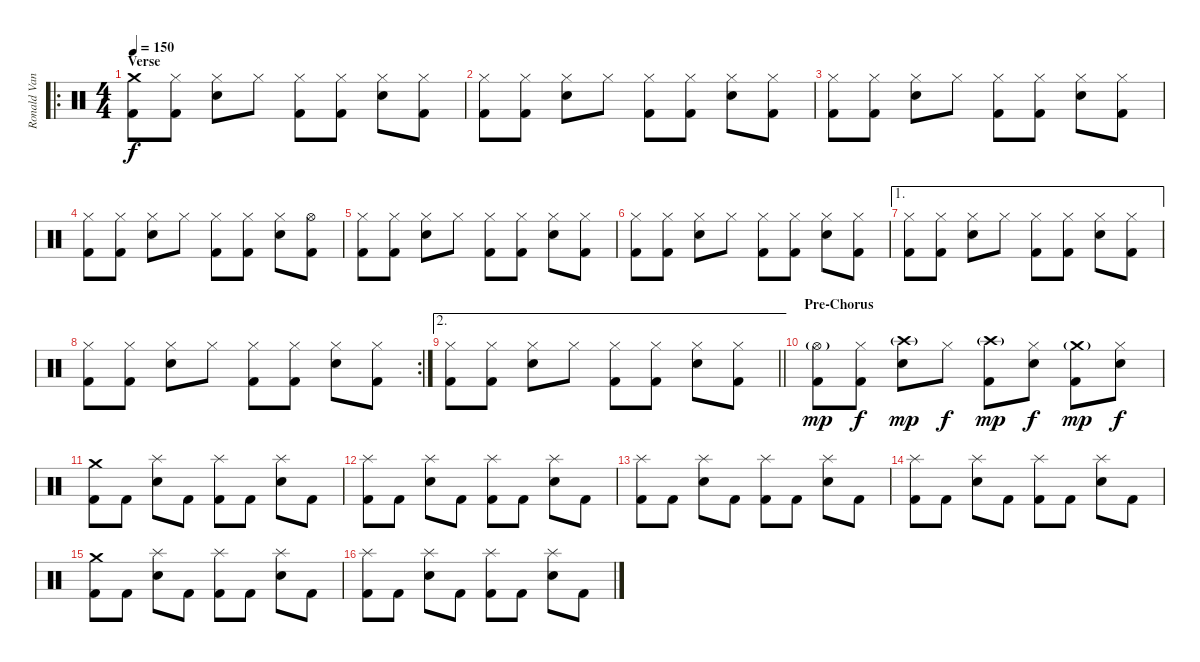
\track ("Ronald Vanucci Jr (Drums)" "Ronald Van") {instrument percussion}
\staff {score}
\articulation defaults
\ro
\ts (4 4)
\section ("" "Verse")
\tempo 150
\clef neutral
\ks c
("Crash medium (hit)" "Kick (hit) 2").8{dy f} ("Hi-Hat (closed)" "Kick (hit) 2").8 ("Hi-Hat (closed)" "Snare (hit) 2").8 "Hi-Hat (closed)".8 ("Hi-Hat (closed)" "Kick (hit) 2").8 ("Hi-Hat (closed)" "Kick (hit) 2").8 ("Hi-Hat (closed)" "Snare (hit) 2").8 ("Hi-Hat (closed)" "Kick (hit) 2").8 |
("Hi-Hat (closed)" "Kick (hit) 2").8 ("Hi-Hat (closed)" "Kick (hit) 2").8 ("Hi-Hat (closed)" "Snare (hit) 2").8 "Hi-Hat (closed)".8 ("Hi-Hat (closed)" "Kick (hit) 2").8 ("Hi-Hat (closed)" "Kick (hit) 2").8 ("Hi-Hat (closed)" "Snare (hit) 2").8 ("Hi-Hat (closed)" "Kick (hit) 2").8 |
("Hi-Hat (closed)" "Kick (hit) 2").8 ("Hi-Hat (closed)" "Kick (hit) 2").8 ("Hi-Hat (closed)" "Snare (hit) 2").8 "Hi-Hat (closed)".8 ("Hi-Hat (closed)" "Kick (hit) 2").8 ("Hi-Hat (closed)" "Kick (hit) 2").8 ("Hi-Hat (closed)" "Snare (hit) 2").8 ("Hi-Hat (closed)" "Kick (hit) 2").8 |
("Hi-Hat (closed)" "Kick (hit) 2").8 ("Hi-Hat (closed)" "Kick (hit) 2").8 ("Hi-Hat (closed)" "Snare (hit) 2").8 "Hi-Hat (closed)".8 ("Hi-Hat (closed)" "Kick (hit) 2").8 ("Hi-Hat (closed)" "Kick (hit) 2").8 ("Hi-Hat (closed)" "Snare (hit) 2").8 ("Hi-Hat (open)" "Kick (hit) 2").8 |
("Hi-Hat (closed)" "Kick (hit) 2").8 ("Hi-Hat (closed)" "Kick (hit) 2").8 ("Hi-Hat (closed)" "Snare (hit) 2").8 "Hi-Hat (closed)".8 ("Hi-Hat (closed)" "Kick (hit) 2").8 ("Hi-Hat (closed)" "Kick (hit) 2").8 ("Hi-Hat (closed)" "Snare (hit) 2").8 ("Hi-Hat (closed)" "Kick (hit) 2").8 |
("Hi-Hat (closed)" "Kick (hit) 2").8 ("Hi-Hat (closed)" "Kick (hit) 2").8 ("Hi-Hat (closed)" "Snare (hit) 2").8 "Hi-Hat (closed)".8 ("Hi-Hat (closed)" "Kick (hit) 2").8 ("Hi-Hat (closed)" "Kick (hit) 2").8 ("Hi-Hat (closed)" "Snare (hit) 2").8 ("Hi-Hat (closed)" "Kick (hit) 2").8 |
\ae 1
("Hi-Hat (closed)" "Kick (hit) 2").8 ("Hi-Hat (closed)" "Kick (hit) 2").8 ("Hi-Hat (closed)" "Snare (hit) 2").8 "Hi-Hat (closed)".8 ("Hi-Hat (closed)" "Kick (hit) 2").8 ("Hi-Hat (closed)" "Kick (hit) 2").8 ("Hi-Hat (closed)" "Snare (hit) 2").8 ("Hi-Hat (closed)" "Kick (hit) 2").8 |
\rc 2
("Hi-Hat (closed)" "Kick (hit) 2").8 ("Hi-Hat (closed)" "Kick (hit) 2").8 ("Hi-Hat (closed)" "Snare (hit) 2").8 "Hi-Hat (closed)".8 ("Hi-Hat (closed)" "Kick (hit) 2").8 ("Hi-Hat (closed)" "Kick (hit) 2").8 ("Hi-Hat (closed)" "Snare (hit) 2").8 ("Hi-Hat (closed)" "Kick (hit) 2").8 |
\ae 2
\barLineRight lightlight
("Hi-Hat (closed)" "Kick (hit) 2").8 ("Hi-Hat (closed)" "Kick (hit) 2").8 ("Hi-Hat (closed)" "Snare (hit) 2").8 "Hi-Hat (closed)".8 ("Hi-Hat (closed)" "Kick (hit) 2").8 ("Hi-Hat (closed)" "Kick (hit) 2").8 ("Hi-Hat (closed)" "Snare (hit) 2").8 ("Hi-Hat (closed)" "Kick (hit) 2").8 |
\section ("" "Pre-Chorus")
("Hi-Hat (open)"{g} "Kick (hit) 2").8{dy mp} ("Hi-Hat (closed)" "Kick (hit) 2").8{dy f} ("Crash high (hit)"{g} "Snare (hit) 2").8{dy mp} "Hi-Hat (closed)".8{dy f} ("Crash high (hit)"{g} "Kick (hit) 2").8{dy mp} ("Hi-Hat (closed)" "Snare (hit) 2").8{dy f} ("Crash medium (hit)"{g} "Kick (hit) 2").8{dy mp} ("Hi-Hat (closed)" "Snare (hit) 2").8{dy f} |
("Crash medium (hit)" "Kick (hit) 2").8 "Kick (hit) 2".8 ("Splash (hit)" "Snare (hit) 2").8 "Kick (hit) 2".8 ("Splash (hit)" "Kick (hit) 2").8 "Kick (hit) 2".8 ("Splash (hit)" "Snare (hit) 2").8 "Kick (hit) 2".8 |
("Splash (hit)" "Kick (hit) 2").8 "Kick (hit) 2".8 ("Splash (hit)" "Snare (hit) 2").8 "Kick (hit) 2".8 ("Splash (hit)" "Kick (hit) 2").8 "Kick (hit) 2".8 ("Splash (hit)" "Snare (hit) 2").8 "Kick (hit) 2".8 |
("Splash (hit)" "Kick (hit) 2").8 "Kick (hit) 2".8 ("Splash (hit)" "Snare (hit) 2").8 "Kick (hit) 2".8 ("Splash (hit)" "Kick (hit) 2").8 "Kick (hit) 2".8 ("Splash (hit)" "Snare (hit) 2").8 "Kick (hit) 2".8 |
("Splash (hit)" "Kick (hit) 2").8 "Kick (hit) 2".8 ("Splash (hit)" "Snare (hit) 2").8 "Kick (hit) 2".8 ("Splash (hit)" "Kick (hit) 2").8 "Kick (hit) 2".8 ("Splash (hit)" "Snare (hit) 2").8 "Kick (hit) 2".8 |
("Crash medium (hit)" "Kick (hit) 2").8 "Kick (hit) 2".8 ("Splash (hit)" "Snare (hit) 2").8 "Kick (hit) 2".8 ("Splash (hit)" "Kick (hit) 2").8 "Kick (hit) 2".8 ("Splash (hit)" "Snare (hit) 2").8 "Kick (hit) 2".8 |
("Splash (hit)" "Kick (hit) 2").8 "Kick (hit) 2".8 ("Splash (hit)" "Snare (hit) 2").8 "Kick (hit) 2".8 ("Splash (hit)" "Kick (hit) 2").8 "Kick (hit) 2".8 ("Splash (hit)" "Snare (hit) 2").8 "Kick (hit) 2".8
